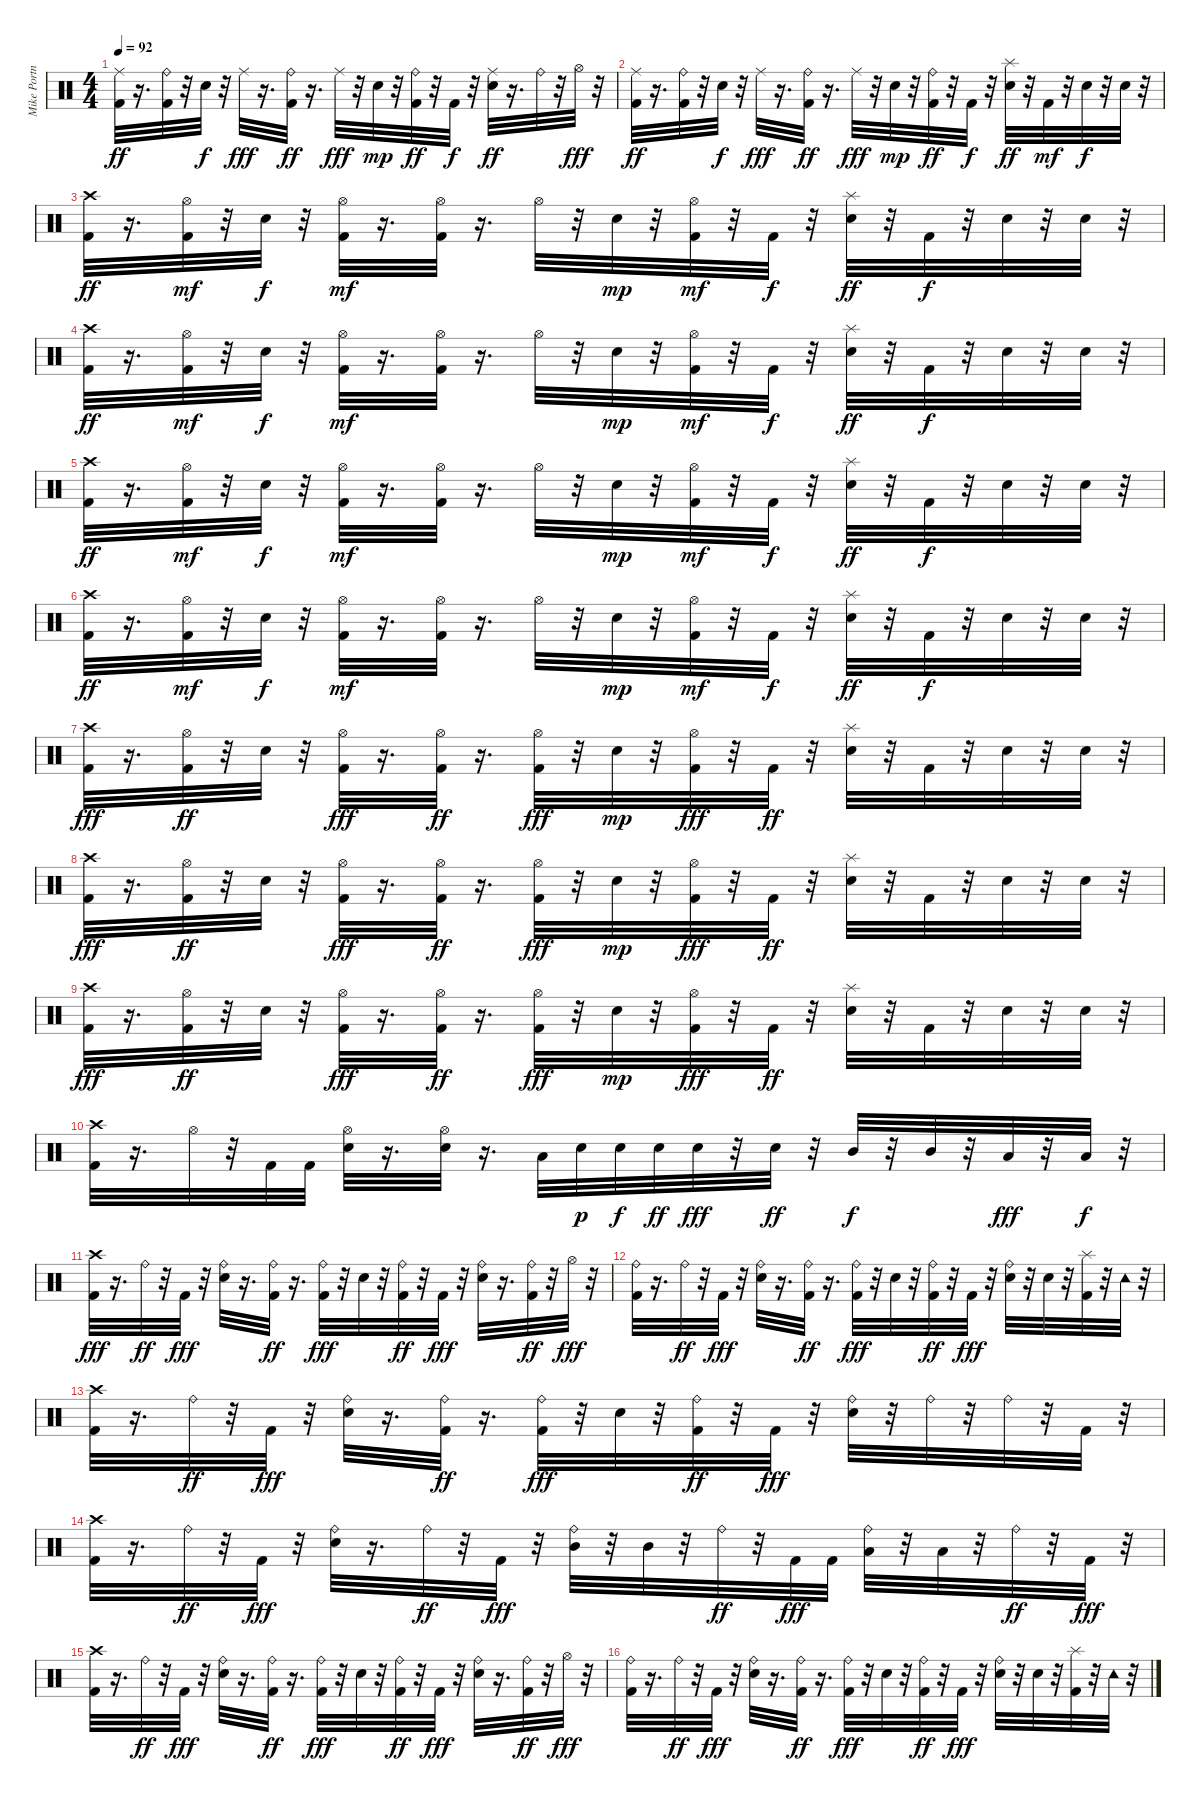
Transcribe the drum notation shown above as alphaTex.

\track ("Mike Portnoy" "Mike Portn") {instrument percussion}
\staff {score}
\articulation defaults
\ts (4 4)
\tempo 92
\clef neutral
\ks c
("Ride (middle)" "Kick (hit) 2").32{dy ff} r.16{d} ("Kick (hit) 2" "Ride (bell)").32 r.32 "Snare (hit) 2".32{dy f} r.32 "Ride (middle)".32{dy fff} r.16{d} ("Kick (hit) 2" "Ride (bell)").32{dy ff} r.16{d} "Ride (middle)".32{dy fff} r.32 "Snare (hit) 2".32{dy mp} r.32 ("Kick (hit) 2" "Ride (bell)").32{dy ff} r.32 "Kick (hit) 2".32{dy f} r.32 ("Ride (middle)" "Snare (hit) 2").32{dy ff} r.16{d} "Ride (bell)".32 r.32 "Hi-Hat (open)".32{dy fff} r.32 |
("Ride (middle)" "Kick (hit) 2").32{dy ff} r.16{d} ("Kick (hit) 2" "Ride (bell)").32 r.32 "Snare (hit) 2".32{dy f} r.32 "Ride (middle)".32{dy fff} r.16{d} ("Kick (hit) 2" "Ride (bell)").32{dy ff} r.16{d} "Ride (middle)".32{dy fff} r.32 "Snare (hit) 2".32{dy mp} r.32 ("Kick (hit) 2" "Ride (bell)").32{dy ff} r.32 "Kick (hit) 2".32{dy f} r.32 ("Snare (hit) 2" "Splash (hit)").32{dy ff} r.32 "Kick (hit) 2".32{dy mf} r.32 "Snare (hit) 2".32{dy f} r.32 "Snare (hit) 2".32 r.32 |
("Kick (hit) 2" "Crash high (hit)").32{dy ff} r.16{d} ("Kick (hit) 2" "Hi-Hat (open)").32{dy mf} r.32 "Snare (hit) 2".32{dy f} r.32 ("Kick (hit) 2" "Hi-Hat (open)").32{dy mf} r.16{d} ("Kick (hit) 2" "Hi-Hat (open)").32 r.16{d} "Hi-Hat (open)".32 r.32 "Snare (hit) 2".32{dy mp} r.32 ("Kick (hit) 2" "Hi-Hat (open)").32{dy mf} r.32 "Kick (hit) 2".32{dy f} r.32 ("Snare (hit) 2" "Splash (hit)").32{dy ff} r.32 "Kick (hit) 2".32{dy f} r.32 "Snare (hit) 2".32 r.32 "Snare (hit) 2".32 r.32 |
("Kick (hit) 2" "Crash high (hit)").32{dy ff} r.16{d} ("Kick (hit) 2" "Hi-Hat (open)").32{dy mf} r.32 "Snare (hit) 2".32{dy f} r.32 ("Kick (hit) 2" "Hi-Hat (open)").32{dy mf} r.16{d} ("Kick (hit) 2" "Hi-Hat (open)").32 r.16{d} "Hi-Hat (open)".32 r.32 "Snare (hit) 2".32{dy mp} r.32 ("Kick (hit) 2" "Hi-Hat (open)").32{dy mf} r.32 "Kick (hit) 2".32{dy f} r.32 ("Snare (hit) 2" "Splash (hit)").32{dy ff} r.32 "Kick (hit) 2".32{dy f} r.32 "Snare (hit) 2".32 r.32 "Snare (hit) 2".32 r.32 |
("Kick (hit) 2" "Crash high (hit)").32{dy ff} r.16{d} ("Kick (hit) 2" "Hi-Hat (open)").32{dy mf} r.32 "Snare (hit) 2".32{dy f} r.32 ("Kick (hit) 2" "Hi-Hat (open)").32{dy mf} r.16{d} ("Kick (hit) 2" "Hi-Hat (open)").32 r.16{d} "Hi-Hat (open)".32 r.32 "Snare (hit) 2".32{dy mp} r.32 ("Kick (hit) 2" "Hi-Hat (open)").32{dy mf} r.32 "Kick (hit) 2".32{dy f} r.32 ("Snare (hit) 2" "Splash (hit)").32{dy ff} r.32 "Kick (hit) 2".32{dy f} r.32 "Snare (hit) 2".32 r.32 "Snare (hit) 2".32 r.32 |
("Kick (hit) 2" "Crash high (hit)").32{dy ff} r.16{d} ("Kick (hit) 2" "Hi-Hat (open)").32{dy mf} r.32 "Snare (hit) 2".32{dy f} r.32 ("Kick (hit) 2" "Hi-Hat (open)").32{dy mf} r.16{d} ("Kick (hit) 2" "Hi-Hat (open)").32 r.16{d} "Hi-Hat (open)".32 r.32 "Snare (hit) 2".32{dy mp} r.32 ("Kick (hit) 2" "Hi-Hat (open)").32{dy mf} r.32 "Kick (hit) 2".32{dy f} r.32 ("Snare (hit) 2" "Splash (hit)").32{dy ff} r.32 "Kick (hit) 2".32{dy f} r.32 "Snare (hit) 2".32 r.32 "Snare (hit) 2".32 r.32 |
("Kick (hit) 2" "Crash high (hit)").32{dy fff} r.16{d} ("Kick (hit) 2" "Hi-Hat (open)").32{dy ff} r.32 "Snare (hit) 2".32 r.32 ("Kick (hit) 2" "Hi-Hat (open)").32{dy fff} r.16{d} ("Kick (hit) 2" "Hi-Hat (open)").32{dy ff} r.16{d} ("Kick (hit) 2" "Hi-Hat (open)").32{dy fff} r.32 "Snare (hit) 2".32{dy mp} r.32 ("Kick (hit) 2" "Hi-Hat (open)").32{dy fff} r.32 "Kick (hit) 2".32{dy ff} r.32 ("Snare (hit) 2" "Splash (hit)").32 r.32 "Kick (hit) 2".32 r.32 "Snare (hit) 2".32 r.32 "Snare (hit) 2".32 r.32 |
("Kick (hit) 2" "Crash high (hit)").32{dy fff} r.16{d} ("Kick (hit) 2" "Hi-Hat (open)").32{dy ff} r.32 "Snare (hit) 2".32 r.32 ("Kick (hit) 2" "Hi-Hat (open)").32{dy fff} r.16{d} ("Kick (hit) 2" "Hi-Hat (open)").32{dy ff} r.16{d} ("Kick (hit) 2" "Hi-Hat (open)").32{dy fff} r.32 "Snare (hit) 2".32{dy mp} r.32 ("Kick (hit) 2" "Hi-Hat (open)").32{dy fff} r.32 "Kick (hit) 2".32{dy ff} r.32 ("Snare (hit) 2" "Splash (hit)").32 r.32 "Kick (hit) 2".32 r.32 "Snare (hit) 2".32 r.32 "Snare (hit) 2".32 r.32 |
("Kick (hit) 2" "Crash high (hit)").32{dy fff} r.16{d} ("Kick (hit) 2" "Hi-Hat (open)").32{dy ff} r.32 "Snare (hit) 2".32 r.32 ("Kick (hit) 2" "Hi-Hat (open)").32{dy fff} r.16{d} ("Kick (hit) 2" "Hi-Hat (open)").32{dy ff} r.16{d} ("Kick (hit) 2" "Hi-Hat (open)").32{dy fff} r.32 "Snare (hit) 2".32{dy mp} r.32 ("Kick (hit) 2" "Hi-Hat (open)").32{dy fff} r.32 "Kick (hit) 2".32{dy ff} r.32 ("Snare (hit) 2" "Splash (hit)").32 r.32 "Kick (hit) 2".32 r.32 "Snare (hit) 2".32 r.32 "Snare (hit) 2".32 r.32 |
("Kick (hit) 2" "Crash high (hit)").32 r.16{d} "Hi-Hat (open)".32 r.32 "Kick (hit) 2".32 "Kick (hit) 2".32 ("Snare (hit) 2" "Hi-Hat (open)").32 r.16{d} ("Snare (hit) 2" "Hi-Hat (open)").32 r.16{d} "Low Tom (hit)".32 "Snare (hit) 2".32{dy p} "Snare (hit) 2".32{dy f} "Snare (hit) 2".32{dy ff} "Snare (hit) 2".32{dy fff} r.32 "Snare (hit) 2".32{dy ff} r.32 "Mid Tom (hit)".32{dy f} r.32 "Mid Tom (hit)".32 r.32 "Low Tom (hit)".32{dy fff} r.32 "Low Tom (hit)".32{dy f} r.32 |
("Kick (hit) 2" "Crash high (hit)").32{dy fff} r.16{d} "Ride (bell)".32{dy ff} r.32 "Kick (hit) 2".32{dy fff} r.32 ("Ride (bell)" "Snare (hit) 2").32 r.16{d} ("Kick (hit) 2" "Ride (bell)").32{dy ff} r.16{d} ("Kick (hit) 2" "Ride (bell)").32{dy fff} r.32 "Snare (hit) 2".32 r.32 ("Kick (hit) 2" "Ride (bell)").32{dy ff} r.32 "Kick (hit) 2".32{dy fff} r.32 ("Ride (bell)" "Snare (hit) 2").32 r.16{d} ("Kick (hit) 2" "Ride (bell)").32{dy ff} r.32 "Hi-Hat (open)".32{dy fff} r.32 |
("Kick (hit) 2" "Ride (bell)").32 r.16{d} "Ride (bell)".32{dy ff} r.32 "Kick (hit) 2".32{dy fff} r.32 ("Ride (bell)" "Snare (hit) 2").32 r.16{d} ("Kick (hit) 2" "Ride (bell)").32{dy ff} r.16{d} ("Kick (hit) 2" "Ride (bell)").32{dy fff} r.32 "Snare (hit) 2".32 r.32 ("Kick (hit) 2" "Ride (bell)").32{dy ff} r.32 "Kick (hit) 2".32{dy fff} r.32 ("Ride (bell)" "Snare (hit) 2").32 r.32 "Snare (hit) 2".32 r.32 ("Kick (hit) 2" "Splash (hit)").32 r.32 "Tambourine (hit)".32 r.32 |
("Kick (hit) 2" "Crash high (hit)").32 r.16{d} "Ride (bell)".32{dy ff} r.32 "Kick (hit) 2".32{dy fff} r.32 ("Ride (bell)" "Snare (hit) 2").32 r.16{d} ("Kick (hit) 2" "Ride (bell)").32{dy ff} r.16{d} ("Kick (hit) 2" "Ride (bell)").32{dy fff} r.32 "Snare (hit) 2".32 r.32 ("Kick (hit) 2" "Ride (bell)").32{dy ff} r.32 "Kick (hit) 2".32{dy fff} r.32 ("Ride (bell)" "Snare (hit) 2").32 r.32 "Ride (bell)".32 r.32 "Ride (bell)".32 r.32 "Kick (hit) 2".32 r.32 |
("Kick (hit) 2" "Crash high (hit)").32 r.16{d} "Ride (bell)".32{dy ff} r.32 "Kick (hit) 2".32{dy fff} r.32 ("Ride (bell)" "Snare (hit) 2").32 r.16{d} "Ride (bell)".32{dy ff} r.32 "Kick (hit) 2".32{dy fff} r.32 ("Ride (bell)" "Mid Tom (hit)").32 r.32 "Mid Tom (hit)".32 r.32 "Ride (bell)".32{dy ff} r.32 "Kick (hit) 2".32{dy fff} "Kick (hit) 2".32 ("Ride (bell)" "Low Tom (hit)").32 r.32 "Low Tom (hit)".32 r.32 "Ride (bell)".32{dy ff} r.32 "Kick (hit) 2".32{dy fff} r.32 |
("Kick (hit) 2" "Crash high (hit)").32 r.16{d} "Ride (bell)".32{dy ff} r.32 "Kick (hit) 2".32{dy fff} r.32 ("Ride (bell)" "Snare (hit) 2").32 r.16{d} ("Kick (hit) 2" "Ride (bell)").32{dy ff} r.16{d} ("Kick (hit) 2" "Ride (bell)").32{dy fff} r.32 "Snare (hit) 2".32 r.32 ("Kick (hit) 2" "Ride (bell)").32{dy ff} r.32 "Kick (hit) 2".32{dy fff} r.32 ("Ride (bell)" "Snare (hit) 2").32 r.16{d} ("Kick (hit) 2" "Ride (bell)").32{dy ff} r.32 "Hi-Hat (open)".32{dy fff} r.32 |
("Kick (hit) 2" "Ride (bell)").32 r.16{d} "Ride (bell)".32{dy ff} r.32 "Kick (hit) 2".32{dy fff} r.32 ("Ride (bell)" "Snare (hit) 2").32 r.16{d} ("Kick (hit) 2" "Ride (bell)").32{dy ff} r.16{d} ("Kick (hit) 2" "Ride (bell)").32{dy fff} r.32 "Snare (hit) 2".32 r.32 ("Kick (hit) 2" "Ride (bell)").32{dy ff} r.32 "Kick (hit) 2".32{dy fff} r.32 ("Ride (bell)" "Snare (hit) 2").32 r.32 "Snare (hit) 2".32 r.32 ("Kick (hit) 2" "Splash (hit)").32 r.32 "Tambourine (hit)".32 r.32
